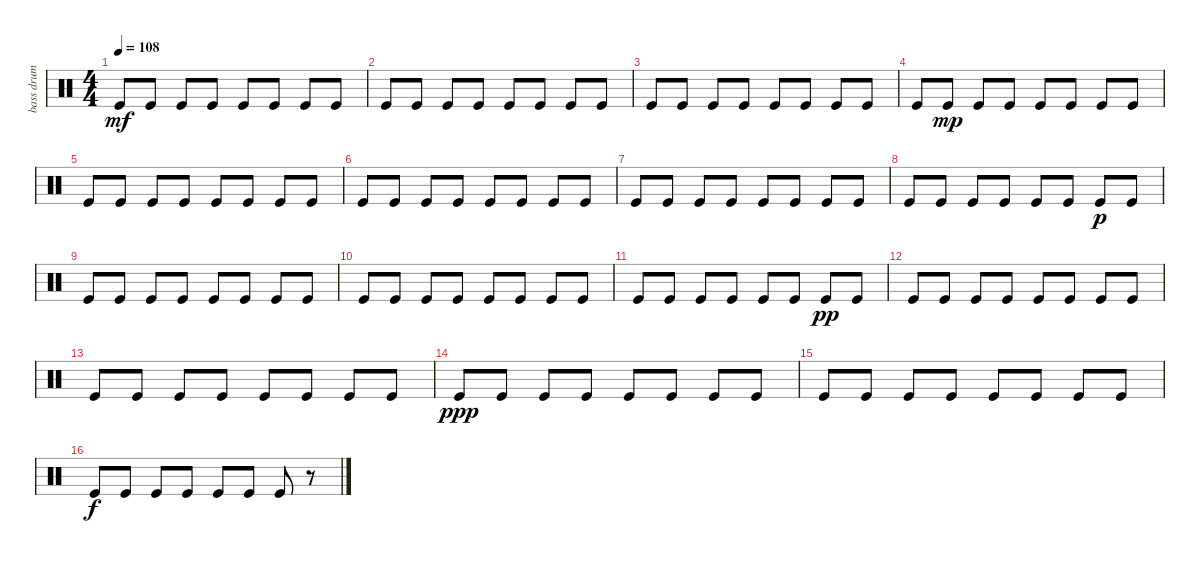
\track ("bass drum           " "bass drum ") {instrument percussion}
\staff {score}
\articulation defaults
\ts (4 4)
\tempo 108
\clef neutral
\ks c "Kick (hit)".8{dy mf volume 10} "Kick (hit)".8 "Kick (hit)".8 "Kick (hit)".8 "Kick (hit)".8{volume 10} "Kick (hit)".8 "Kick (hit)".8{volume 9} "Kick (hit)".8
|
"Kick (hit)".8 "Kick (hit)".8 "Kick (hit)".8 "Kick (hit)".8{volume 9} "Kick (hit)".8 "Kick (hit)".8 "Kick (hit)".8 "Kick (hit)".8 |
"Kick (hit)".8{volume 9} "Kick (hit)".8 "Kick (hit)".8 "Kick (hit)".8 "Kick (hit)".8{volume 9} "Kick (hit)".8 "Kick (hit)".8 "Kick (hit)".8 |
"Kick (hit)".8 "Kick (hit)".8{dy mp volume 9} "Kick (hit)".8{volume 9} "Kick (hit)".8{volume 9} "Kick (hit)".8{volume 9} "Kick (hit)".8{volume 9} "Kick (hit)".8{volume 9} "Kick (hit)".8{volume 9} |
"Kick (hit)".8 "Kick (hit)".8{volume 8} "Kick (hit)".8 "Kick (hit)".8 "Kick (hit)".8{volume 8} "Kick (hit)".8 "Kick (hit)".8 "Kick (hit)".8{volume 8} |
"Kick (hit)".8 "Kick (hit)".8{volume 8} "Kick (hit)".8 "Kick (hit)".8{volume 8} "Kick (hit)".8 "Kick (hit)".8{volume 8} "Kick (hit)".8 "Kick (hit)".8{volume 8} |
"Kick (hit)".8 "Kick (hit)".8{volume 8} "Kick (hit)".8 "Kick (hit)".8{volume 7} "Kick (hit)".8 "Kick (hit)".8 "Kick (hit)".8{volume 7} "Kick (hit)".8 |
"Kick (hit)".8{volume 7} "Kick (hit)".8 "Kick (hit)".8{volume 7} "Kick (hit)".8 "Kick (hit)".8{volume 7} "Kick (hit)".8 "Kick (hit)".8{dy p volume 7} "Kick (hit)".8 |
"Kick (hit)".8{volume 7} "Kick (hit)".8 "Kick (hit)".8{volume 6} "Kick (hit)".8 "Kick (hit)".8 "Kick (hit)".8{volume 6} "Kick (hit)".8 "Kick (hit)".8{volume 6} |
"Kick (hit)".8 "Kick (hit)".8{volume 6} "Kick (hit)".8 "Kick (hit)".8{volume 6} "Kick (hit)".8 "Kick (hit)".8{volume 6} "Kick (hit)".8{volume 6} "Kick (hit)".8{volume 6} |
"Kick (hit)".8{volume 6} "Kick (hit)".8{volume 5} "Kick (hit)".8{volume 5} "Kick (hit)".8 "Kick (hit)".8{volume 5} "Kick (hit)".8{volume 5} "Kick (hit)".8{dy pp volume 5} "Kick (hit)".8{volume 5} |
"Kick (hit)".8{volume 5} "Kick (hit)".8{volume 4} "Kick (hit)".8{volume 4} "Kick (hit)".8{volume 4} "Kick (hit)".8{volume 4} "Kick (hit)".8{volume 4} "Kick (hit)".8{volume 4} "Kick (hit)".8{volume 4} |
"Kick (hit)".8{volume 4} "Kick (hit)".8{volume 4} "Kick (hit)".8 "Kick (hit)".8{volume 3} "Kick (hit)".8{volume 3} "Kick (hit)".8{volume 3} "Kick (hit)".8{volume 3} "Kick (hit)".8{volume 3} |
"Kick (hit)".8{dy ppp volume 3} "Kick (hit)".8{volume 3} "Kick (hit)".8{volume 2} "Kick (hit)".8{volume 2} "Kick (hit)".8{volume 2} "Kick (hit)".8{volume 2} "Kick (hit)".8{volume 2} "Kick (hit)".8{volume 2} |
"Kick (hit)".8{volume 2} "Kick (hit)".8{volume 2} "Kick (hit)".8 "Kick (hit)".8{volume 2} "Kick (hit)".8{volume 1} "Kick (hit)".8{volume 1} "Kick (hit)".8{volume 1} "Kick (hit)".8{volume 1} |
"Kick (hit)".8{dy f volume 1} "Kick (hit)".8{volume 1} "Kick (hit)".8{volume 1} "Kick (hit)".8{volume 0} "Kick (hit)".8{volume 0} "Kick (hit)".8{volume 0} "Kick (hit)".8{volume 0} r.8
